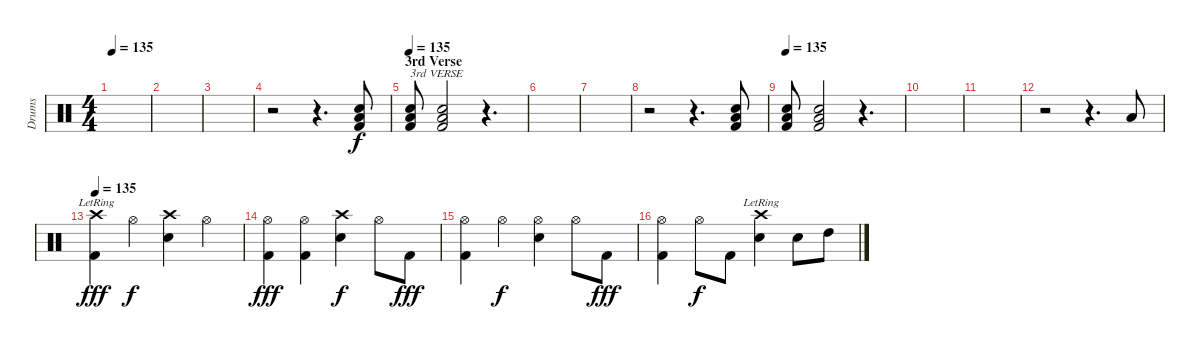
\track ("Drums" "Drums") {instrument percussion}
\staff {score}
\articulation defaults
\ts (4 4)
\tempo 135
\clef neutral
\ks c
|
|
|
r.2 r.4{d} ("Snare (hit) 2" "Low Tom (hit)" "Kick (hit) 2").8 |
\section ("" "3rd Verse")
\tempo 135
("Snare (hit) 2" "Low Tom (hit)" "Kick (hit) 2").8{txt "3rd VERSE"} ("Snare (hit) 2" "Low Tom (hit)" "Kick (hit) 2").2 r.4{d} |
|
|
r.2 r.4{d} ("Snare (hit) 2" "Low Tom (hit)" "Kick (hit) 2").8 |
\tempo 135
("Snare (hit) 2" "Low Tom (hit)" "Kick (hit) 2").8 ("Snare (hit) 2" "Low Tom (hit)" "Kick (hit) 2").2 r.4{d} |
|
|
r.2 r.4{d} "Low Tom (hit)".8 |
\tempo 135
("Crash high (hit)"{lr} "Kick (hit) 2").4{dy fff} "Hi-Hat (open)".4{dy f} ("Crash high (hit)" "Snare (hit) 2").4 "Hi-Hat (open)".4 |
("Hi-Hat (open)" "Kick (hit) 2").4{dy fff} ("Hi-Hat (open)" "Kick (hit) 2").4 ("Crash high (hit)" "Snare (hit) 2").4{dy f} "Hi-Hat (open)".8 "Kick (hit) 2".8{dy fff} |
("Hi-Hat (open)" "Kick (hit) 2").4 "Hi-Hat (open)".4{dy f} ("Hi-Hat (open)" "Snare (hit) 2").4 "Hi-Hat (open)".8 "Kick (hit) 2".8{dy fff} |
("Hi-Hat (open)" "Kick (hit) 2").4 "Hi-Hat (open)".8{dy f} "Kick (hit) 2".8 ("Crash high (hit)"{lr} "Snare (hit) 2").4 "Snare (hit) 2".8 "High Tom (hit)".8
